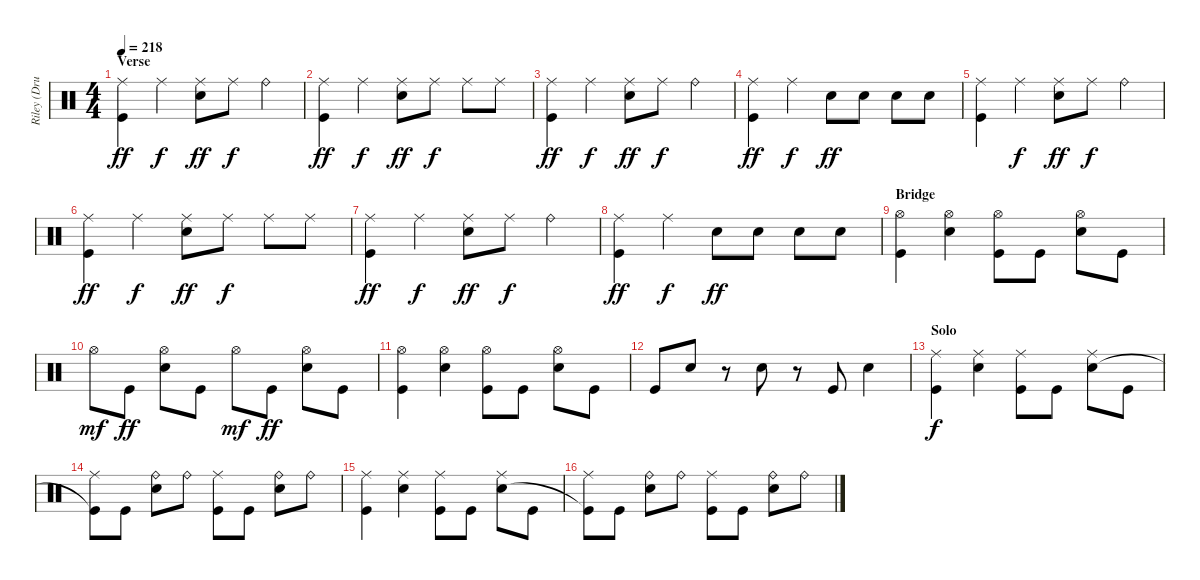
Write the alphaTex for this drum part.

\track ("Riley (Drums)" "Riley (Dru") {instrument percussion}
\staff {score}
\articulation defaults
\ts (4 4)
\section ("" "Verse")
\tempo 218
\clef neutral
\ks c
("Ride (middle)" "Kick (hit)").4{dy ff} "Ride (middle)".4{dy f} ("Ride (middle)" "Electric Snare (hit)").8{dy ff} "Ride (middle)".8{dy f} "Ride (bell)".4 |
("Ride (middle)" "Kick (hit)").4{dy ff} "Ride (middle)".4{dy f} ("Ride (middle)" "Electric Snare (hit)").8{dy ff} "Ride (middle)".8{dy f} "Ride (middle)".8 "Ride (middle)".8 |
("Ride (middle)" "Kick (hit)").4{dy ff} "Ride (middle)".4{dy f} ("Ride (middle)" "Electric Snare (hit)").8{dy ff} "Ride (middle)".8{dy f} "Ride (bell)".4 |
("Ride (middle)" "Kick (hit)").4{dy ff} "Ride (middle)".4{dy f} "Electric Snare (hit)".8{dy ff} "Electric Snare (hit)".8 "Electric Snare (hit)".8 "Electric Snare (hit)".8 |
("Ride (middle)" "Kick (hit)").4 "Ride (middle)".4{dy f} ("Ride (middle)" "Electric Snare (hit)").8{dy ff} "Ride (middle)".8{dy f} "Ride (bell)".4 |
("Ride (middle)" "Kick (hit)").4{dy ff} "Ride (middle)".4{dy f} ("Ride (middle)" "Electric Snare (hit)").8{dy ff} "Ride (middle)".8{dy f} "Ride (middle)".8 "Ride (middle)".8 |
("Ride (middle)" "Kick (hit)").4{dy ff} "Ride (middle)".4{dy f} ("Ride (middle)" "Electric Snare (hit)").8{dy ff} "Ride (middle)".8{dy f} "Ride (bell)".4 |
("Ride (middle)" "Kick (hit)").4{dy ff} "Ride (middle)".4{dy f} "Electric Snare (hit)".8{dy ff} "Electric Snare (hit)".8 "Electric Snare (hit)".8 "Electric Snare (hit)".8 |
\section ("" "Bridge")
("Hi-Hat (open)" "Kick (hit)").4 ("Hi-Hat (open)" "Electric Snare (hit)").4 ("Hi-Hat (open)" "Kick (hit)").8 "Kick (hit)".8 ("Hi-Hat (open)" "Electric Snare (hit)").8 "Kick (hit)".8 |
"Hi-Hat (open)".8{dy mf} "Kick (hit)".8{dy ff} ("Hi-Hat (open)" "Electric Snare (hit)").8 "Kick (hit)".8 "Hi-Hat (open)".8{dy mf} "Kick (hit)".8{dy ff} ("Hi-Hat (open)" "Electric Snare (hit)").8 "Kick (hit)".8 |
("Hi-Hat (open)" "Kick (hit)").4 ("Hi-Hat (open)" "Electric Snare (hit)").4 ("Hi-Hat (open)" "Kick (hit)").8 "Kick (hit)".8 ("Hi-Hat (open)" "Electric Snare (hit)").8 "Kick (hit)".8 |
"Kick (hit)".8 "Electric Snare (hit)".8 r.8 "Electric Snare (hit)".8 r.8 "Kick (hit)".8 "Electric Snare (hit)".4 |
\section ("" "Solo")
("Ride (middle)" "Kick (hit)").4{dy f} ("Ride (middle)" "Electric Snare (hit)").4 ("Ride (middle)" "Kick (hit)").8 "Kick (hit)".8 ("Ride (middle)" "Electric Snare (hit)").8 "Kick (hit)".8 |
("Ride (middle)" "Kick (hit)"{t}).8 "Kick (hit)".8 ("Ride (bell)" "Electric Snare (hit)").8 "Ride (bell)".8 ("Ride (middle)" "Kick (hit)").8 "Kick (hit)".8 ("Ride (bell)" "Electric Snare (hit)").8 "Ride (bell)".8 |
("Ride (middle)" "Kick (hit)").4 ("Ride (middle)" "Electric Snare (hit)").4 ("Ride (middle)" "Kick (hit)").8 "Kick (hit)".8 ("Ride (middle)" "Electric Snare (hit)").8 "Kick (hit)".8 |
("Ride (middle)" "Kick (hit)"{t}).8 "Kick (hit)".8 ("Ride (bell)" "Electric Snare (hit)").8 "Ride (bell)".8 ("Ride (middle)" "Kick (hit)").8 "Kick (hit)".8 ("Ride (bell)" "Electric Snare (hit)").8 "Ride (bell)".8
